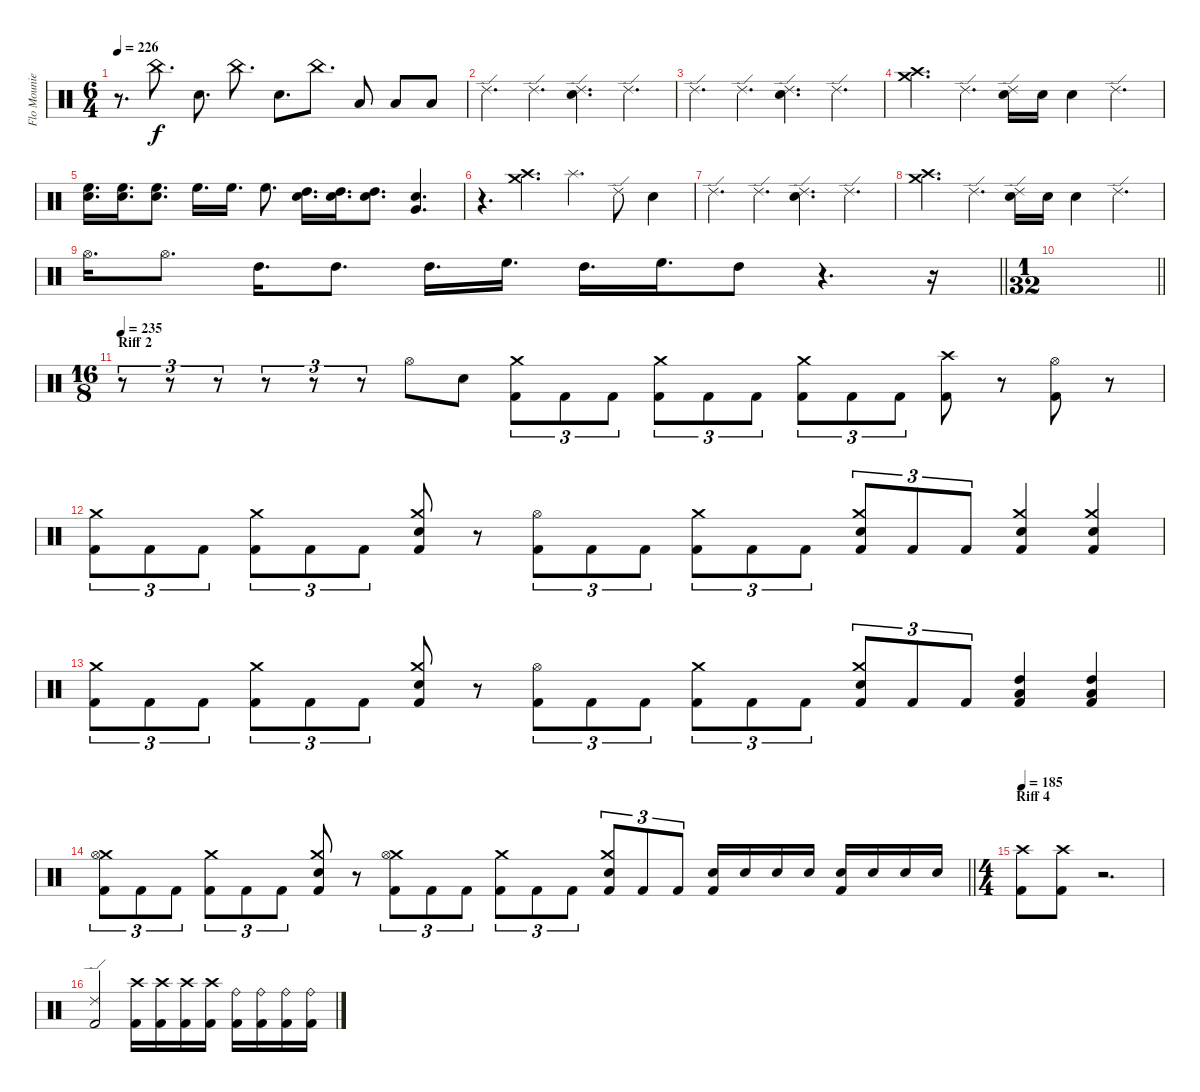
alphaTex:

\track ("Flo Mounier" "Flo Mounie") {instrument percussion}
\staff {score}
\articulation defaults
\ts (6 4)
\tempo 226
\clef neutral
\ks c
r.8{d dy f} "China (hit)".8{d} "Snare (hit) 2".8{d} "China (hit)".8{d} "Snare (hit) 2".8{d} "China (hit)".8{d} "Low Tom (hit)".8 "Low Tom (hit)".8 "Low Tom (hit)".8 |
"Ride (edge) 2".4{d} "Ride (edge) 2".4{d} ("Ride (edge) 2" "Snare (hit) 2").4{d} "Ride (edge) 2".4{d} |
"Ride (edge) 2".4{d} "Ride (edge) 2".4{d} ("Ride (edge) 2" "Snare (hit) 2").4{d} "Ride (edge) 2".4{d} |
("Crash high (hit)" "Crash medium (hit)").4{d} "Ride (edge) 2".4{d} ("Ride (edge) 2" "Snare (hit) 2").16 "Snare (hit) 2".16 "Snare (hit) 2".4 "Ride (edge) 2".4{d} |
("High Floor Tom (hit)" "Snare (hit) 2").16{d} ("High Floor Tom (hit)" "Snare (hit) 2").16{d} ("High Floor Tom (hit)" "Snare (hit) 2").8{d} "High Floor Tom (hit)".16{d} "High Floor Tom (hit)".16{d} "High Floor Tom (hit)".8{d} ("High Tom (hit)" "Snare (hit) 2").16{d} ("High Tom (hit)" "Snare (hit) 2").16{d} ("High Tom (hit)" "Snare (hit) 2").8{d} ("Snare (hit) 2" "Very Low Tom (hit)").4{d} |
r.4{d} ("Crash high (hit)" "Crash medium (hit)").4{d} "Splash (hit)".4{d} "Ride (edge) 2".8 "Snare (hit) 2".4 |
"Ride (edge) 2".4{d} "Ride (edge) 2".4{d} ("Ride (edge) 2" "Snare (hit) 2").4{d} "Ride (edge) 2".4{d} |
("Crash high (hit)" "Crash medium (hit)").4{d} "Ride (edge) 2".4{d} ("Ride (edge) 2" "Snare (hit) 2").16 "Snare (hit) 2".16 "Snare (hit) 2".4 "Ride (edge) 2".4{d} |
\barLineRight lightlight "Hi-Hat (open)".16{d} "Hi-Hat (open)".8{d} "High Tom (hit)".16{d} "High Tom (hit)".8{d} "High Tom (hit)".16{d} "High Floor Tom (hit)".16{d} "High Tom (hit)".16{d} "High Floor Tom (hit)".16{d} "High Tom (hit)".8
r.4{d} r.16 |
\ts (1 32)
\barLineRight lightlight
|
\ts (16 8)
\section ("" "Riff 2")
\tempo 235
r.8{tu (3 2)} r.8{tu (3 2)} r.8{tu (3 2)} r.8{tu (3 2)} r.8{tu (3 2)} r.8{tu (3 2)} "Hi-Hat (open)".8 "Snare (hit) 2".8 ("Crash medium (hit)" "Kick (hit) 2").8{tu (3 2)} "Kick (hit) 2".8{tu (3 2)} "Kick (hit) 2".8{tu (3 2)} ("Crash medium (hit)" "Kick (hit) 2").8{tu (3 2)} "Kick (hit) 2".8{tu (3 2)} "Kick (hit) 2".8{tu (3 2)} ("Crash medium (hit)" "Kick (hit) 2").8{tu (3 2)} "Kick (hit) 2".8{tu (3 2)} "Kick (hit) 2".8{tu (3 2)} ("Crash high (hit)" "Kick (hit) 2").8 r.8 ("Hi-Hat (open)" "Kick (hit) 2").8 r.8 |
("Crash medium (hit)" "Kick (hit) 2").8{tu (3 2)} "Kick (hit) 2".8{tu (3 2)} "Kick (hit) 2".8{tu (3 2)} ("Crash medium (hit)" "Kick (hit) 2").8{tu (3 2)} "Kick (hit) 2".8{tu (3 2)} "Kick (hit) 2".8{tu (3 2)} ("Crash medium (hit)" "Snare (hit) 2" "Kick (hit) 2").8 r.8 ("Hi-Hat (open)" "Kick (hit) 2").8{tu (3 2)} "Kick (hit) 2".8{tu (3 2)} "Kick (hit) 2".8{tu (3 2)} ("Crash medium (hit)" "Kick (hit) 2").8{tu (3 2)} "Kick (hit) 2".8{tu (3 2)} "Kick (hit) 2".8{tu (3 2)} ("Crash medium (hit)" "Snare (hit) 2" "Kick (hit) 2").8{tu (3 2)} "Kick (hit) 2".8{tu (3 2)} "Kick (hit) 2".8{tu (3 2)} ("Crash medium (hit)" "Snare (hit) 2" "Kick (hit) 2").4 ("Crash medium (hit)" "Snare (hit) 2" "Kick (hit) 2").4 |
("Crash medium (hit)" "Kick (hit) 2").8{tu (3 2)} "Kick (hit) 2".8{tu (3 2)} "Kick (hit) 2".8{tu (3 2)} ("Crash medium (hit)" "Kick (hit) 2").8{tu (3 2)} "Kick (hit) 2".8{tu (3 2)} "Kick (hit) 2".8{tu (3 2)} ("Crash medium (hit)" "Snare (hit) 2" "Kick (hit) 2").8 r.8 ("Hi-Hat (open)" "Kick (hit) 2").8{tu (3 2)} "Kick (hit) 2".8{tu (3 2)} "Kick (hit) 2".8{tu (3 2)} ("Crash medium (hit)" "Kick (hit) 2").8{tu (3 2)} "Kick (hit) 2".8{tu (3 2)} "Kick (hit) 2".8{tu (3 2)} ("Crash medium (hit)" "Snare (hit) 2" "Kick (hit) 2").8{tu (3 2)} "Kick (hit) 2".8{tu (3 2)} "Kick (hit) 2".8{tu (3 2)} ("High Tom (hit)" "Low Tom (hit)" "Kick (hit) 2").4 ("High Tom (hit)" "Low Tom (hit)" "Kick (hit) 2").4 |
\barLineRight lightlight
("Crash medium (hit)" "Hi-Hat (open)" "Kick (hit) 2").8{tu (3 2)} "Kick (hit) 2".8{tu (3 2)} "Kick (hit) 2".8{tu (3 2)} ("Crash medium (hit)" "Kick (hit) 2").8{tu (3 2)} "Kick (hit) 2".8{tu (3 2)} "Kick (hit) 2".8{tu (3 2)} ("Crash medium (hit)" "Snare (hit) 2" "Kick (hit) 2").8 r.8 ("Crash medium (hit)" "Hi-Hat (open)" "Kick (hit) 2").8{tu (3 2)} "Kick (hit) 2".8{tu (3 2)} "Kick (hit) 2".8{tu (3 2)} ("Crash medium (hit)" "Kick (hit) 2").8{tu (3 2)} "Kick (hit) 2".8{tu (3 2)} "Kick (hit) 2".8{tu (3 2)} ("Crash medium (hit)" "Snare (hit) 2" "Kick (hit) 2").8{tu (3 2)} "Kick (hit) 2".8{tu (3 2)} "Kick (hit) 2".8{tu (3 2)} ("Snare (hit) 2" "Kick (hit) 2").16 "Snare (hit) 2".16 "Snare (hit) 2".16 "Snare (hit) 2".16 ("Snare (hit) 2" "Kick (hit) 2").16 "Snare (hit) 2".16 "Snare (hit) 2".16 "Snare (hit) 2".16 |
\ts (4 4)
\section ("" "Riff 4")
\tempo 185
("Crash high (hit)" "Kick (hit) 2").8 ("Crash high (hit)" "Kick (hit) 2").8 r.2{d} |
("Ride (edge) 2" "Kick (hit) 2").2 ("Crash high (hit)" "Kick (hit) 2").16 ("Crash high (hit)" "Kick (hit) 2").16 ("Crash high (hit)" "Kick (hit) 2").16 ("Crash high (hit)" "Kick (hit) 2").16 ("Ride (bell)" "Kick (hit) 2").16 ("Ride (bell)" "Kick (hit) 2").16 ("Ride (bell)" "Kick (hit) 2").16 ("Ride (bell)" "Kick (hit) 2").16
